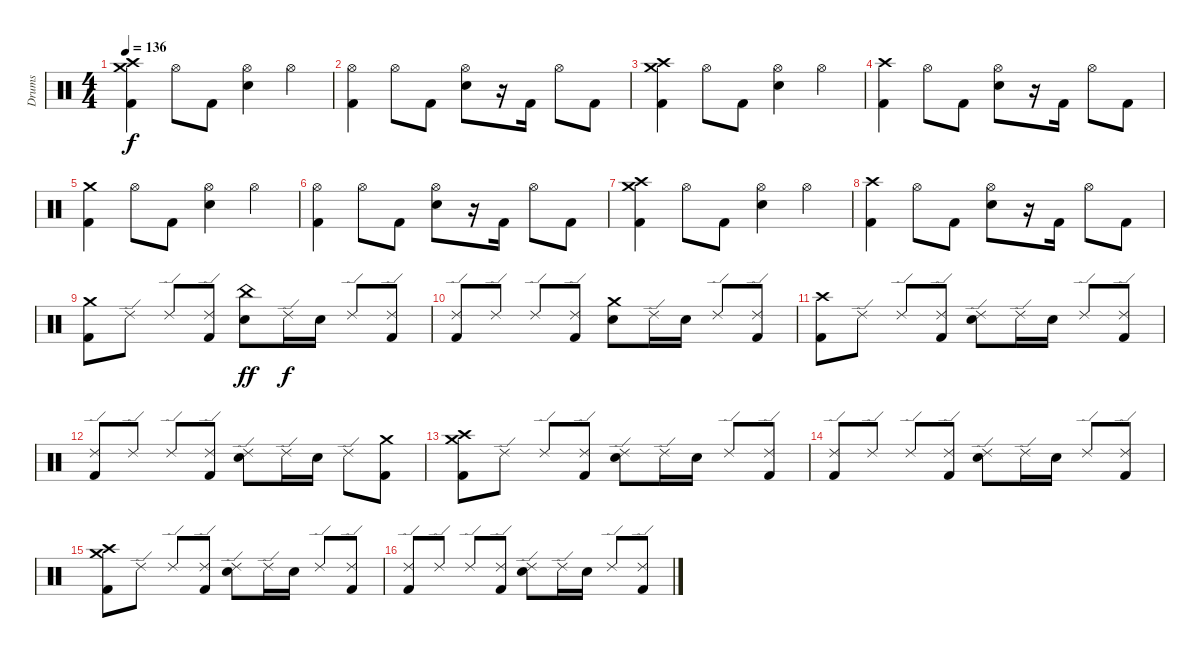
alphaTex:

\track ("Drums" "Drums") {instrument percussion}
\staff {score}
\articulation defaults
\ts (4 4)
\tempo 136
\clef neutral
\ks c
("Crash medium (hit)" "Crash high (hit)" "Kick (hit) 2").4{dy f} "Hi-Hat (open)".8 "Kick (hit) 2".8 ("Hi-Hat (open)" "Electric Snare (hit)").4 "Hi-Hat (open)".4 |
("Hi-Hat (open)" "Kick (hit) 2").4 "Hi-Hat (open)".8 "Kick (hit) 2".8 ("Hi-Hat (open)" "Electric Snare (hit)").8 r.16 "Kick (hit) 2".16 "Hi-Hat (open)".8 "Kick (hit) 2".8 |
("Crash medium (hit)" "Crash high (hit)" "Kick (hit) 2").4 "Hi-Hat (open)".8 "Kick (hit) 2".8 ("Hi-Hat (open)" "Electric Snare (hit)").4 "Hi-Hat (open)".4 |
("Crash high (hit)" "Kick (hit) 2").4 "Hi-Hat (open)".8 "Kick (hit) 2".8 ("Hi-Hat (open)" "Electric Snare (hit)").8 r.16 "Kick (hit) 2".16 "Hi-Hat (open)".8 "Kick (hit) 2".8 |
("Crash medium (hit)" "Kick (hit) 2").4 "Hi-Hat (open)".8 "Kick (hit) 2".8 ("Hi-Hat (open)" "Electric Snare (hit)").4 "Hi-Hat (open)".4 |
("Hi-Hat (open)" "Kick (hit) 2").4 "Hi-Hat (open)".8 "Kick (hit) 2".8 ("Hi-Hat (open)" "Electric Snare (hit)").8 r.16 "Kick (hit) 2".16 "Hi-Hat (open)".8 "Kick (hit) 2".8 |
("Crash medium (hit)" "Crash high (hit)" "Kick (hit) 2").4 "Hi-Hat (open)".8 "Kick (hit) 2".8 ("Hi-Hat (open)" "Electric Snare (hit)").4 "Hi-Hat (open)".4 |
("Crash high (hit)" "Kick (hit) 2").4 "Hi-Hat (open)".8 "Kick (hit) 2".8 ("Hi-Hat (open)" "Electric Snare (hit)").8 r.16 "Kick (hit) 2".16 "Hi-Hat (open)".8 "Kick (hit) 2".8 |
("Crash medium (hit)" "Kick (hit) 2").8 "Ride (edge) 2".8 "Ride (edge) 2".8 ("Ride (edge) 2" "Kick (hit) 2").8 ("China (hit)" "Electric Snare (hit)").8{dy ff} "Ride (edge) 2".16{dy f} "Electric Snare (hit)".16 "Ride (edge) 2".8 ("Ride (edge) 2" "Kick (hit) 2").8 |
("Ride (edge) 2" "Kick (hit) 2").8 "Ride (edge) 2".8 "Ride (edge) 2".8 ("Ride (edge) 2" "Kick (hit) 2").8 ("Crash medium (hit)" "Electric Snare (hit)").8 "Ride (edge) 2".16 "Electric Snare (hit)".16 "Ride (edge) 2".8 ("Ride (edge) 2" "Kick (hit) 2").8 |
("Crash high (hit)" "Kick (hit) 2").8 "Ride (edge) 2".8 "Ride (edge) 2".8 ("Ride (edge) 2" "Kick (hit) 2").8 ("Ride (edge) 2" "Electric Snare (hit)").8 "Ride (edge) 2".16 "Electric Snare (hit)".16 "Ride (edge) 2".8 ("Ride (edge) 2" "Kick (hit) 2").8 |
("Ride (edge) 2" "Kick (hit) 2").8 "Ride (edge) 2".8 "Ride (edge) 2".8 ("Ride (edge) 2" "Kick (hit) 2").8 ("Ride (edge) 2" "Electric Snare (hit)").8 "Ride (edge) 2".16 "Electric Snare (hit)".16 "Ride (edge) 2".8 ("Crash medium (hit)" "Kick (hit) 2").8 |
("Crash medium (hit)" "Crash high (hit)" "Kick (hit) 2").8 "Ride (edge) 2".8 "Ride (edge) 2".8 ("Ride (edge) 2" "Kick (hit) 2").8 ("Ride (edge) 2" "Electric Snare (hit)").8 "Ride (edge) 2".16 "Electric Snare (hit)".16 "Ride (edge) 2".8 ("Ride (edge) 2" "Kick (hit) 2").8 |
("Ride (edge) 2" "Kick (hit) 2").8 "Ride (edge) 2".8 "Ride (edge) 2".8 ("Ride (edge) 2" "Kick (hit) 2").8 ("Ride (edge) 2" "Electric Snare (hit)").8 "Ride (edge) 2".16 "Electric Snare (hit)".16 "Ride (edge) 2".8 ("Ride (edge) 2" "Kick (hit) 2").8 |
("Crash medium (hit)" "Crash high (hit)" "Kick (hit) 2").8 "Ride (edge) 2".8 "Ride (edge) 2".8 ("Ride (edge) 2" "Kick (hit) 2").8 ("Ride (edge) 2" "Electric Snare (hit)").8 "Ride (edge) 2".16 "Electric Snare (hit)".16 "Ride (edge) 2".8 ("Ride (edge) 2" "Kick (hit) 2").8 |
("Ride (edge) 2" "Kick (hit) 2").8 "Ride (edge) 2".8 "Ride (edge) 2".8 ("Ride (edge) 2" "Kick (hit) 2").8 ("Ride (edge) 2" "Electric Snare (hit)").8 "Ride (edge) 2".16 "Electric Snare (hit)".16 "Ride (edge) 2".8 ("Ride (edge) 2" "Kick (hit) 2").8
